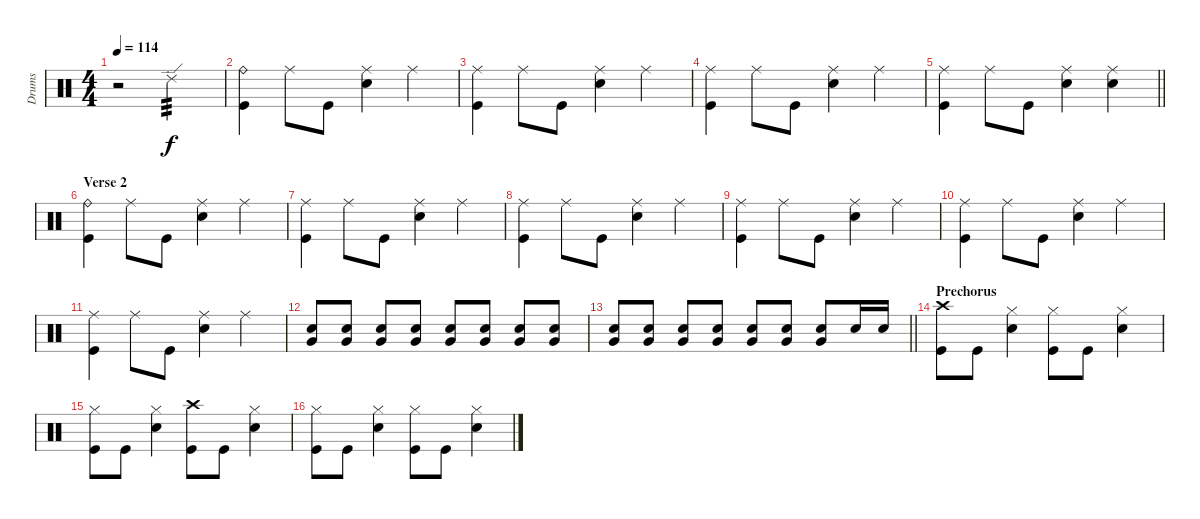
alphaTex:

\track ("Drums" "Drums") {instrument percussion}
\staff {score}
\articulation defaults
\ts (4 4)
\tempo 114
\clef neutral
\ks aminor
r.2{dy f} "Ride (edge) 2".2{tp 3} |
\ks c
("Ride (bell)" "Kick (hit)").4 "Ride (middle)".8 "Kick (hit)".8 ("Ride (middle)" "Snare (hit) 2").4 "Ride (middle)".4 |
("Ride (middle)" "Kick (hit)").4 "Ride (middle)".8 "Kick (hit)".8 ("Ride (middle)" "Snare (hit) 2").4 "Ride (middle)".4 |
("Ride (middle)" "Kick (hit)").4 "Ride (middle)".8 "Kick (hit)".8 ("Ride (middle)" "Snare (hit) 2").4 "Ride (middle)".4 |
\barLineRight lightlight
("Ride (middle)" "Kick (hit)").4 "Ride (middle)".8 "Kick (hit)".8 ("Ride (middle)" "Snare (hit) 2").4 ("Ride (middle)" "Snare (hit) 2").4 |
\section ("" "Verse 2")
("Ride (bell)" "Kick (hit)").4 "Ride (middle)".8 "Kick (hit)".8 ("Ride (middle)" "Snare (hit) 2").4 "Ride (middle)".4 |
("Ride (middle)" "Kick (hit)").4 "Ride (middle)".8 "Kick (hit)".8 ("Ride (middle)" "Snare (hit) 2").4 "Ride (middle)".4 |
("Ride (middle)" "Kick (hit)").4 "Ride (middle)".8 "Kick (hit)".8 ("Ride (middle)" "Snare (hit) 2").4 "Ride (middle)".4 |
("Ride (middle)" "Kick (hit)").4 "Ride (middle)".8 "Kick (hit)".8 ("Ride (middle)" "Snare (hit) 2").4 "Ride (middle)".4 |
("Ride (middle)" "Kick (hit)").4 "Ride (middle)".8 "Kick (hit)".8 ("Ride (middle)" "Snare (hit) 2").4 "Ride (middle)".4 |
("Ride (middle)" "Kick (hit)").4 "Ride (middle)".8 "Kick (hit)".8 ("Ride (middle)" "Snare (hit) 2").4 "Ride (middle)".4 |
("Snare (hit) 2" "Very Low Tom (hit)").8 ("Snare (hit) 2" "Very Low Tom (hit)").8 ("Snare (hit) 2" "Very Low Tom (hit)").8 ("Snare (hit) 2" "Very Low Tom (hit)").8 ("Snare (hit) 2" "Very Low Tom (hit)").8 ("Snare (hit) 2" "Very Low Tom (hit)").8 ("Snare (hit) 2" "Very Low Tom (hit)").8 ("Snare (hit) 2" "Very Low Tom (hit)").8 |
\barLineRight lightlight
("Snare (hit) 2" "Very Low Tom (hit)").8 ("Snare (hit) 2" "Very Low Tom (hit)").8 ("Snare (hit) 2" "Very Low Tom (hit)").8 ("Snare (hit) 2" "Very Low Tom (hit)").8 ("Snare (hit) 2" "Very Low Tom (hit)").8 ("Snare (hit) 2" "Very Low Tom (hit)").8 ("Snare (hit) 2" "Very Low Tom (hit)").8 "Snare (hit) 2".16 "Snare (hit) 2".16 |
\section ("" "Prechorus")
("Crash high (hit)" "Kick (hit)").8 "Kick (hit)".8 ("Hi-Hat (closed)" "Snare (hit) 2").4 ("Hi-Hat (closed)" "Kick (hit)").8 "Kick (hit)".8 ("Hi-Hat (closed)" "Snare (hit) 2").4 |
("Hi-Hat (closed)" "Kick (hit)").8 "Kick (hit)".8 ("Hi-Hat (closed)" "Snare (hit) 2").4 ("Crash high (hit)" "Kick (hit)").8 "Kick (hit)".8 ("Hi-Hat (closed)" "Snare (hit) 2").4 |
("Hi-Hat (closed)" "Kick (hit)").8 "Kick (hit)".8 ("Hi-Hat (closed)" "Snare (hit) 2").4 ("Hi-Hat (closed)" "Kick (hit)").8 "Kick (hit)".8 ("Hi-Hat (closed)" "Snare (hit) 2").4
